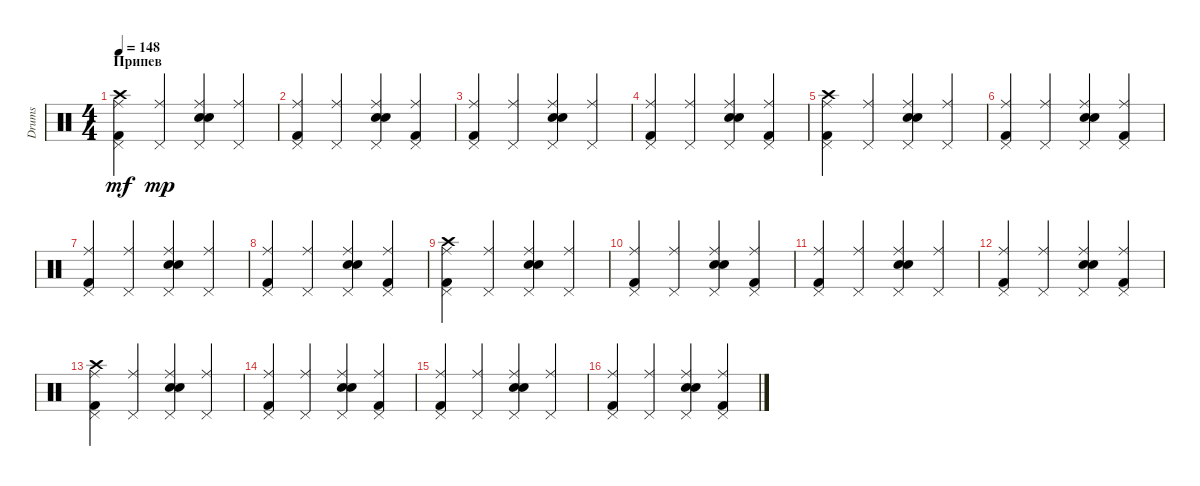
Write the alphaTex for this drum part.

\track ("Drums" "Drums") {instrument percussion}
\staff {score}
\articulation defaults
\ts (4 4)
\section ("" "Припев")
\tempo 148
\clef neutral
\ks c
("Pedal Hi-Hat (hit)" "Kick (hit) 2" "Ride (middle)" "Crash high (hit)").4{dy mf} ("Pedal Hi-Hat (hit)" "Ride (middle)").4{dy mp} ("Pedal Hi-Hat (hit)" "Snare (hit) 2" "Electric Snare (hit)" "Ride (middle)").4 ("Pedal Hi-Hat (hit)" "Ride (middle)").4 |
("Pedal Hi-Hat (hit)" "Kick (hit) 2" "Ride (middle)").4 ("Pedal Hi-Hat (hit)" "Ride (middle)").4 ("Pedal Hi-Hat (hit)" "Snare (hit) 2" "Electric Snare (hit)" "Ride (middle)").4 ("Pedal Hi-Hat (hit)" "Kick (hit) 2" "Ride (middle)").4 |
("Pedal Hi-Hat (hit)" "Kick (hit) 2" "Ride (middle)").4 ("Pedal Hi-Hat (hit)" "Ride (middle)").4 ("Pedal Hi-Hat (hit)" "Snare (hit) 2" "Electric Snare (hit)" "Ride (middle)").4 ("Pedal Hi-Hat (hit)" "Ride (middle)").4 |
("Pedal Hi-Hat (hit)" "Kick (hit) 2" "Ride (middle)").4 ("Pedal Hi-Hat (hit)" "Ride (middle)").4 ("Pedal Hi-Hat (hit)" "Snare (hit) 2" "Electric Snare (hit)" "Ride (middle)").4 ("Pedal Hi-Hat (hit)" "Kick (hit) 2" "Ride (middle)").4 |
("Pedal Hi-Hat (hit)" "Kick (hit) 2" "Ride (middle)" "Crash high (hit)").4 ("Pedal Hi-Hat (hit)" "Ride (middle)").4 ("Pedal Hi-Hat (hit)" "Snare (hit) 2" "Electric Snare (hit)" "Ride (middle)").4 ("Pedal Hi-Hat (hit)" "Ride (middle)").4 |
("Pedal Hi-Hat (hit)" "Kick (hit) 2" "Ride (middle)").4 ("Pedal Hi-Hat (hit)" "Ride (middle)").4 ("Pedal Hi-Hat (hit)" "Snare (hit) 2" "Electric Snare (hit)" "Ride (middle)").4 ("Pedal Hi-Hat (hit)" "Kick (hit) 2" "Ride (middle)").4 |
("Pedal Hi-Hat (hit)" "Kick (hit) 2" "Ride (middle)").4 ("Pedal Hi-Hat (hit)" "Ride (middle)").4 ("Pedal Hi-Hat (hit)" "Snare (hit) 2" "Electric Snare (hit)" "Ride (middle)").4 ("Pedal Hi-Hat (hit)" "Ride (middle)").4 |
("Pedal Hi-Hat (hit)" "Kick (hit) 2" "Ride (middle)").4 ("Pedal Hi-Hat (hit)" "Ride (middle)").4 ("Pedal Hi-Hat (hit)" "Snare (hit) 2" "Electric Snare (hit)" "Ride (middle)").4 ("Pedal Hi-Hat (hit)" "Kick (hit) 2" "Ride (middle)").4 |
("Pedal Hi-Hat (hit)" "Kick (hit) 2" "Ride (middle)" "Crash high (hit)").4 ("Pedal Hi-Hat (hit)" "Ride (middle)").4 ("Pedal Hi-Hat (hit)" "Snare (hit) 2" "Electric Snare (hit)" "Ride (middle)").4 ("Pedal Hi-Hat (hit)" "Ride (middle)").4 |
("Pedal Hi-Hat (hit)" "Kick (hit) 2" "Ride (middle)").4 ("Pedal Hi-Hat (hit)" "Ride (middle)").4 ("Pedal Hi-Hat (hit)" "Snare (hit) 2" "Electric Snare (hit)" "Ride (middle)").4 ("Pedal Hi-Hat (hit)" "Kick (hit) 2" "Ride (middle)").4 |
("Pedal Hi-Hat (hit)" "Kick (hit) 2" "Ride (middle)").4 ("Pedal Hi-Hat (hit)" "Ride (middle)").4 ("Pedal Hi-Hat (hit)" "Snare (hit) 2" "Electric Snare (hit)" "Ride (middle)").4 ("Pedal Hi-Hat (hit)" "Ride (middle)").4 |
("Pedal Hi-Hat (hit)" "Kick (hit) 2" "Ride (middle)").4 ("Pedal Hi-Hat (hit)" "Ride (middle)").4 ("Pedal Hi-Hat (hit)" "Snare (hit) 2" "Electric Snare (hit)" "Ride (middle)").4 ("Pedal Hi-Hat (hit)" "Kick (hit) 2" "Ride (middle)").4 |
("Pedal Hi-Hat (hit)" "Kick (hit) 2" "Ride (middle)" "Crash high (hit)").4 ("Pedal Hi-Hat (hit)" "Ride (middle)").4 ("Pedal Hi-Hat (hit)" "Snare (hit) 2" "Electric Snare (hit)" "Ride (middle)").4 ("Pedal Hi-Hat (hit)" "Ride (middle)").4 |
("Pedal Hi-Hat (hit)" "Kick (hit) 2" "Ride (middle)").4 ("Pedal Hi-Hat (hit)" "Ride (middle)").4 ("Pedal Hi-Hat (hit)" "Snare (hit) 2" "Electric Snare (hit)" "Ride (middle)").4 ("Pedal Hi-Hat (hit)" "Kick (hit) 2" "Ride (middle)").4 |
("Pedal Hi-Hat (hit)" "Kick (hit) 2" "Ride (middle)").4 ("Pedal Hi-Hat (hit)" "Ride (middle)").4 ("Pedal Hi-Hat (hit)" "Snare (hit) 2" "Electric Snare (hit)" "Ride (middle)").4 ("Pedal Hi-Hat (hit)" "Ride (middle)").4 |
("Pedal Hi-Hat (hit)" "Kick (hit) 2" "Ride (middle)").4 ("Pedal Hi-Hat (hit)" "Ride (middle)").4 ("Pedal Hi-Hat (hit)" "Snare (hit) 2" "Electric Snare (hit)" "Ride (middle)").4 ("Pedal Hi-Hat (hit)" "Kick (hit) 2" "Ride (middle)").4
